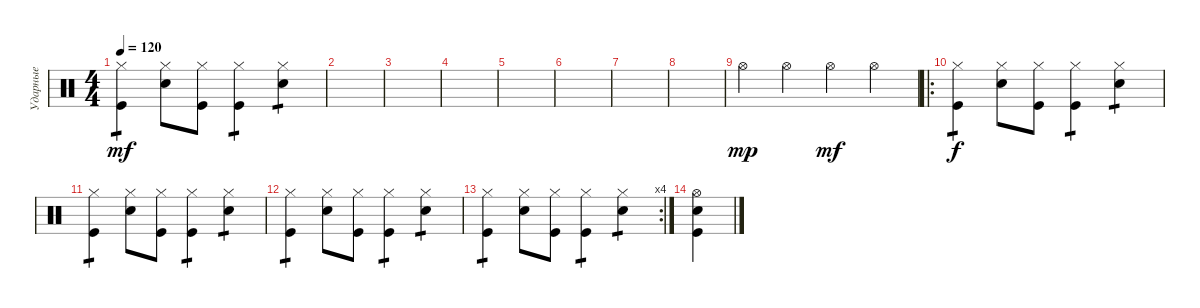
\track ("Ударные" "Ударные") {instrument percussion}
\staff {score}
\articulation defaults
\ts (4 4)
\tempo 120
\clef neutral
\ks c
("Kick (hit)" "Hi-Hat (closed)").4{tp 1 dy mf} ("Snare (hit) 2" "Hi-Hat (closed)").8 ("Kick (hit)" "Hi-Hat (closed)").8 ("Kick (hit)" "Hi-Hat (closed)").4{tp 1} ("Snare (hit) 2" "Hi-Hat (closed)").4{tp 1} |
|
|
|
|
|
|
|
"Hi-Hat (open)".4{dy mp} "Hi-Hat (open)".4 "Hi-Hat (open)".4{dy mf} "Hi-Hat (open)".4 |
\ro
("Kick (hit)" "Hi-Hat (closed)").4{tp 1 dy f} ("Snare (hit) 2" "Hi-Hat (closed)").8 ("Kick (hit)" "Hi-Hat (closed)").8 ("Kick (hit)" "Hi-Hat (closed)").4{tp 1} ("Snare (hit) 2" "Hi-Hat (closed)").4{tp 1} |
("Kick (hit)" "Hi-Hat (closed)").4{tp 1} ("Snare (hit) 2" "Hi-Hat (closed)").8 ("Kick (hit)" "Hi-Hat (closed)").8 ("Kick (hit)" "Hi-Hat (closed)").4{tp 1} ("Snare (hit) 2" "Hi-Hat (closed)").4{tp 1} |
("Kick (hit)" "Hi-Hat (closed)").4{tp 1} ("Snare (hit) 2" "Hi-Hat (closed)").8 ("Kick (hit)" "Hi-Hat (closed)").8 ("Kick (hit)" "Hi-Hat (closed)").4{tp 1} ("Snare (hit) 2" "Hi-Hat (closed)").4{tp 1} |
\rc 4
("Kick (hit)" "Hi-Hat (closed)").4{tp 1} ("Snare (hit) 2" "Hi-Hat (closed)").8 ("Kick (hit)" "Hi-Hat (closed)").8 ("Kick (hit)" "Hi-Hat (closed)").4{tp 1} ("Snare (hit) 2" "Hi-Hat (closed)").4{tp 1} |
("Snare (hit) 2" "Hi-Hat (open)" "Kick (hit)").4
